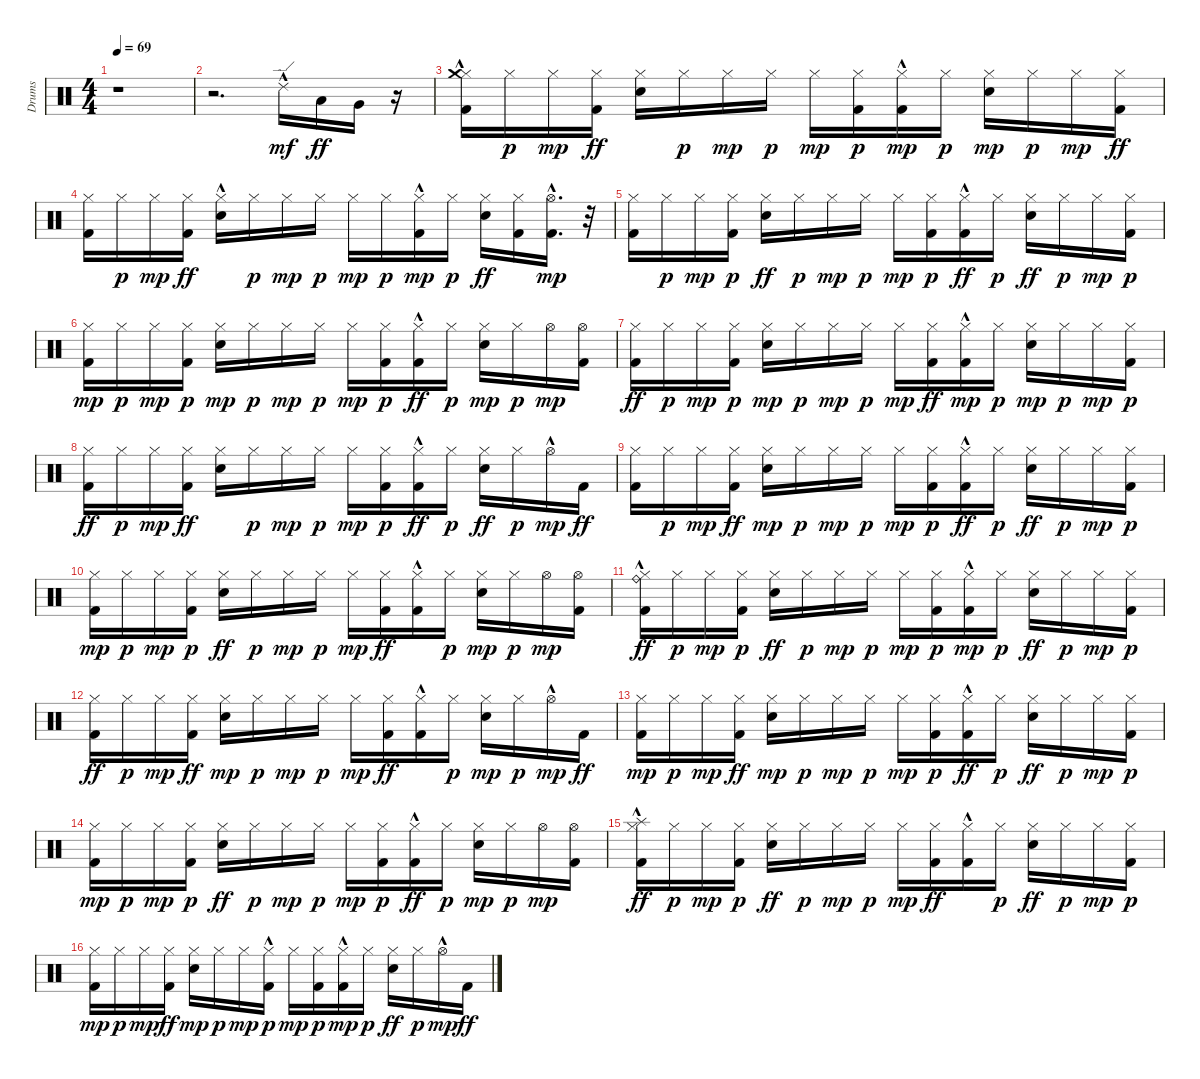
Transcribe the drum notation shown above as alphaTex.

\track ("Drums" "Drums") {instrument percussion}
\staff {score}
\articulation defaults
\ts (4 4)
\tempo 69
\clef neutral
\ks c
r.1{dy mf} |
r.2{d} "Ride (edge) 2"{hac}.16 "Low Tom (hit)".16{dy ff} "Very Low Tom (hit)".16 r.16 |
("Hi-Hat (closed)" "Crash medium (hit)"{hac} "Kick (hit) 2").16 "Hi-Hat (closed)".16{dy p} "Hi-Hat (closed)".16{dy mp} ("Hi-Hat (closed)" "Kick (hit) 2").16{dy ff} ("Hi-Hat (closed)" "Electric Snare (hit)").16 "Hi-Hat (closed)".16{dy p} "Hi-Hat (closed)".16{dy mp} "Hi-Hat (closed)".16{dy p} "Hi-Hat (closed)".16{dy mp} ("Kick (hit) 2" "Hi-Hat (closed)").16{dy p} ("Kick (hit) 2"{hac} "Hi-Hat (closed)").16{dy mp} "Hi-Hat (closed)".16{dy p} ("Electric Snare (hit)" "Hi-Hat (closed)").16{dy mp} "Hi-Hat (closed)".16{dy p} "Hi-Hat (closed)".16{dy mp} ("Hi-Hat (closed)" "Kick (hit) 2").16{dy ff} |
("Hi-Hat (closed)" "Kick (hit) 2").16 "Hi-Hat (closed)".16{dy p} "Hi-Hat (closed)".16{dy mp} ("Hi-Hat (closed)" "Kick (hit) 2").16{dy ff} ("Hi-Hat (closed)" "Electric Snare (hit)"{hac}).16 "Hi-Hat (closed)".16{dy p} "Hi-Hat (closed)".16{dy mp} "Hi-Hat (closed)".16{dy p} "Hi-Hat (closed)".16{dy mp} "Hi-Hat (closed)".16{dy p} ("Kick (hit) 2"{hac} "Hi-Hat (closed)").16{dy mp} "Hi-Hat (closed)".16{dy p} ("Hi-Hat (closed)" "Electric Snare (hit)").16{dy ff} ("Hi-Hat (closed)" "Kick (hit) 2").16 ("Kick (hit) 2"{hac} "Hi-Hat (open)"{hac}).16{d dy mp} r.32 |
("Kick (hit) 2" "Hi-Hat (closed)").16 "Hi-Hat (closed)".16{dy p} "Hi-Hat (closed)".16{dy mp} ("Kick (hit) 2" "Hi-Hat (closed)").16{dy p} ("Hi-Hat (closed)" "Electric Snare (hit)").16{dy ff} "Hi-Hat (closed)".16{dy p} "Hi-Hat (closed)".16{dy mp} "Hi-Hat (closed)".16{dy p} "Hi-Hat (closed)".16{dy mp} ("Kick (hit) 2" "Hi-Hat (closed)").16{dy p} ("Hi-Hat (closed)" "Kick (hit) 2"{hac}).16{dy ff} "Hi-Hat (closed)".16{dy p} ("Hi-Hat (closed)" "Electric Snare (hit)").16{dy ff} "Hi-Hat (closed)".16{dy p} "Hi-Hat (closed)".16{dy mp} ("Kick (hit) 2" "Hi-Hat (closed)").16{dy p} |
("Kick (hit) 2" "Hi-Hat (closed)").16{dy mp} "Hi-Hat (closed)".16{dy p} "Hi-Hat (closed)".16{dy mp} ("Kick (hit) 2" "Hi-Hat (closed)").16{dy p} ("Electric Snare (hit)" "Hi-Hat (closed)").16{dy mp} "Hi-Hat (closed)".16{dy p} "Hi-Hat (closed)".16{dy mp} "Hi-Hat (closed)".16{dy p} "Hi-Hat (closed)".16{dy mp} ("Kick (hit) 2" "Hi-Hat (closed)").16{dy p} ("Hi-Hat (closed)" "Kick (hit) 2"{hac}).16{dy ff} "Hi-Hat (closed)".16{dy p} ("Electric Snare (hit)" "Hi-Hat (closed)").16{dy mp} "Hi-Hat (closed)".16{dy p} "Hi-Hat (open)".16{dy mp} ("Kick (hit) 2" "Hi-Hat (open)").16 |
("Hi-Hat (closed)" "Kick (hit) 2").16{dy ff} "Hi-Hat (closed)".16{dy p} "Hi-Hat (closed)".16{dy mp} ("Kick (hit) 2" "Hi-Hat (closed)").16{dy p} ("Electric Snare (hit)" "Hi-Hat (closed)").16{dy mp} "Hi-Hat (closed)".16{dy p} "Hi-Hat (closed)".16{dy mp} "Hi-Hat (closed)".16{dy p} "Hi-Hat (closed)".16{dy mp} ("Hi-Hat (closed)" "Kick (hit) 2").16{dy ff} ("Kick (hit) 2"{hac} "Hi-Hat (closed)").16{dy mp} "Hi-Hat (closed)".16{dy p} ("Electric Snare (hit)" "Hi-Hat (closed)").16{dy mp} "Hi-Hat (closed)".16{dy p} "Hi-Hat (closed)".16{dy mp} ("Kick (hit) 2" "Hi-Hat (closed)").16{dy p} |
("Hi-Hat (closed)" "Kick (hit) 2").16{dy ff} "Hi-Hat (closed)".16{dy p} "Hi-Hat (closed)".16{dy mp} ("Hi-Hat (closed)" "Kick (hit) 2").16{dy ff} ("Hi-Hat (closed)" "Electric Snare (hit)").16 "Hi-Hat (closed)".16{dy p} "Hi-Hat (closed)".16{dy mp} "Hi-Hat (closed)".16{dy p} "Hi-Hat (closed)".16{dy mp} ("Kick (hit) 2" "Hi-Hat (closed)").16{dy p} ("Hi-Hat (closed)" "Kick (hit) 2"{hac}).16{dy ff} "Hi-Hat (closed)".16{dy p} ("Hi-Hat (closed)" "Electric Snare (hit)").16{dy ff} "Hi-Hat (closed)".16{dy p} "Hi-Hat (open)"{hac}.16{dy mp} "Kick (hit) 2".16{dy ff} |
("Hi-Hat (closed)" "Kick (hit) 2").16 "Hi-Hat (closed)".16{dy p} "Hi-Hat (closed)".16{dy mp} ("Hi-Hat (closed)" "Kick (hit) 2").16{dy ff} ("Electric Snare (hit)" "Hi-Hat (closed)").16{dy mp} "Hi-Hat (closed)".16{dy p} "Hi-Hat (closed)".16{dy mp} "Hi-Hat (closed)".16{dy p} "Hi-Hat (closed)".16{dy mp} ("Kick (hit) 2" "Hi-Hat (closed)").16{dy p} ("Hi-Hat (closed)" "Kick (hit) 2"{hac}).16{dy ff} "Hi-Hat (closed)".16{dy p} ("Hi-Hat (closed)" "Electric Snare (hit)").16{dy ff} "Hi-Hat (closed)".16{dy p} "Hi-Hat (closed)".16{dy mp} ("Kick (hit) 2" "Hi-Hat (closed)").16{dy p} |
("Kick (hit) 2" "Hi-Hat (closed)").16{dy mp} "Hi-Hat (closed)".16{dy p} "Hi-Hat (closed)".16{dy mp} ("Kick (hit) 2" "Hi-Hat (closed)").16{dy p} ("Hi-Hat (closed)" "Electric Snare (hit)").16{dy ff} "Hi-Hat (closed)".16{dy p} "Hi-Hat (closed)".16{dy mp} "Hi-Hat (closed)".16{dy p} "Hi-Hat (closed)".16{dy mp} ("Hi-Hat (closed)" "Kick (hit) 2").16{dy ff} ("Hi-Hat (closed)" "Kick (hit) 2"{hac}).16 "Hi-Hat (closed)".16{dy p} ("Electric Snare (hit)" "Hi-Hat (closed)").16{dy mp} "Hi-Hat (closed)".16{dy p} "Hi-Hat (open)".16{dy mp} ("Kick (hit) 2" "Hi-Hat (open)").16 |
("Hi-Hat (closed)" "Kick (hit) 2" "Ride (bell)"{hac}).16{dy ff} "Hi-Hat (closed)".16{dy p} "Hi-Hat (closed)".16{dy mp} ("Kick (hit) 2" "Hi-Hat (closed)").16{dy p} ("Hi-Hat (closed)" "Electric Snare (hit)").16{dy ff} "Hi-Hat (closed)".16{dy p} "Hi-Hat (closed)".16{dy mp} "Hi-Hat (closed)".16{dy p} "Hi-Hat (closed)".16{dy mp} ("Kick (hit) 2" "Hi-Hat (closed)").16{dy p} ("Kick (hit) 2"{hac} "Hi-Hat (closed)").16{dy mp} "Hi-Hat (closed)".16{dy p} ("Hi-Hat (closed)" "Electric Snare (hit)").16{dy ff} "Hi-Hat (closed)".16{dy p} "Hi-Hat (closed)".16{dy mp} ("Kick (hit) 2" "Hi-Hat (closed)").16{dy p} |
("Hi-Hat (closed)" "Kick (hit) 2").16{dy ff} "Hi-Hat (closed)".16{dy p} "Hi-Hat (closed)".16{dy mp} ("Hi-Hat (closed)" "Kick (hit) 2").16{dy ff} ("Electric Snare (hit)" "Hi-Hat (closed)").16{dy mp} "Hi-Hat (closed)".16{dy p} "Hi-Hat (closed)".16{dy mp} "Hi-Hat (closed)".16{dy p} "Hi-Hat (closed)".16{dy mp} ("Hi-Hat (closed)" "Kick (hit) 2").16{dy ff} ("Hi-Hat (closed)" "Kick (hit) 2"{hac}).16 "Hi-Hat (closed)".16{dy p} ("Electric Snare (hit)" "Hi-Hat (closed)").16{dy mp} "Hi-Hat (closed)".16{dy p} "Hi-Hat (open)"{hac}.16{dy mp} "Kick (hit) 2".16{dy ff} |
("Kick (hit) 2" "Hi-Hat (closed)").16{dy mp} "Hi-Hat (closed)".16{dy p} "Hi-Hat (closed)".16{dy mp} ("Hi-Hat (closed)" "Kick (hit) 2").16{dy ff} ("Electric Snare (hit)" "Hi-Hat (closed)").16{dy mp} "Hi-Hat (closed)".16{dy p} "Hi-Hat (closed)".16{dy mp} "Hi-Hat (closed)".16{dy p} "Hi-Hat (closed)".16{dy mp} ("Kick (hit) 2" "Hi-Hat (closed)").16{dy p} ("Hi-Hat (closed)" "Kick (hit) 2"{hac}).16{dy ff} "Hi-Hat (closed)".16{dy p} ("Hi-Hat (closed)" "Electric Snare (hit)").16{dy ff} "Hi-Hat (closed)".16{dy p} "Hi-Hat (closed)".16{dy mp} ("Kick (hit) 2" "Hi-Hat (closed)").16{dy p} |
("Kick (hit) 2" "Hi-Hat (closed)").16{dy mp} "Hi-Hat (closed)".16{dy p} "Hi-Hat (closed)".16{dy mp} ("Kick (hit) 2" "Hi-Hat (closed)").16{dy p} ("Hi-Hat (closed)" "Electric Snare (hit)").16{dy ff} "Hi-Hat (closed)".16{dy p} "Hi-Hat (closed)".16{dy mp} "Hi-Hat (closed)".16{dy p} "Hi-Hat (closed)".16{dy mp} ("Kick (hit) 2" "Hi-Hat (closed)").16{dy p} ("Hi-Hat (closed)" "Kick (hit) 2"{hac}).16{dy ff} "Hi-Hat (closed)".16{dy p} ("Electric Snare (hit)" "Hi-Hat (closed)").16{dy mp} "Hi-Hat (closed)".16{dy p} "Hi-Hat (open)".16{dy mp} ("Kick (hit) 2" "Hi-Hat (open)").16 |
("Hi-Hat (closed)" "Splash (hit)"{hac} "Kick (hit) 2").16{dy ff} "Hi-Hat (closed)".16{dy p} "Hi-Hat (closed)".16{dy mp} ("Kick (hit) 2" "Hi-Hat (closed)").16{dy p} ("Hi-Hat (closed)" "Electric Snare (hit)").16{dy ff} "Hi-Hat (closed)".16{dy p} "Hi-Hat (closed)".16{dy mp} "Hi-Hat (closed)".16{dy p} "Hi-Hat (closed)".16{dy mp} ("Hi-Hat (closed)" "Kick (hit) 2").16{dy ff} ("Hi-Hat (closed)" "Kick (hit) 2"{hac}).16 "Hi-Hat (closed)".16{dy p} ("Hi-Hat (closed)" "Electric Snare (hit)").16{dy ff} "Hi-Hat (closed)".16{dy p} "Hi-Hat (closed)".16{dy mp} ("Kick (hit) 2" "Hi-Hat (closed)").16{dy p} |
("Kick (hit) 2" "Hi-Hat (closed)").16{dy mp} "Hi-Hat (closed)".16{dy p} "Hi-Hat (closed)".16{dy mp} ("Hi-Hat (closed)" "Kick (hit) 2").16{dy ff} ("Electric Snare (hit)" "Hi-Hat (closed)").16{dy mp} "Hi-Hat (closed)".16{dy p} "Hi-Hat (closed)".16{dy mp} ("Kick (hit) 2"{hac} "Hi-Hat (closed)").16{dy p} "Hi-Hat (closed)".16{dy mp} ("Kick (hit) 2" "Hi-Hat (closed)").16{dy p} ("Kick (hit) 2"{hac} "Hi-Hat (closed)").16{dy mp} "Hi-Hat (closed)".16{dy p} ("Hi-Hat (closed)" "Electric Snare (hit)").16{dy ff} "Hi-Hat (closed)".16{dy p} "Hi-Hat (open)"{hac}.16{dy mp} "Kick (hit) 2".16{dy ff}
